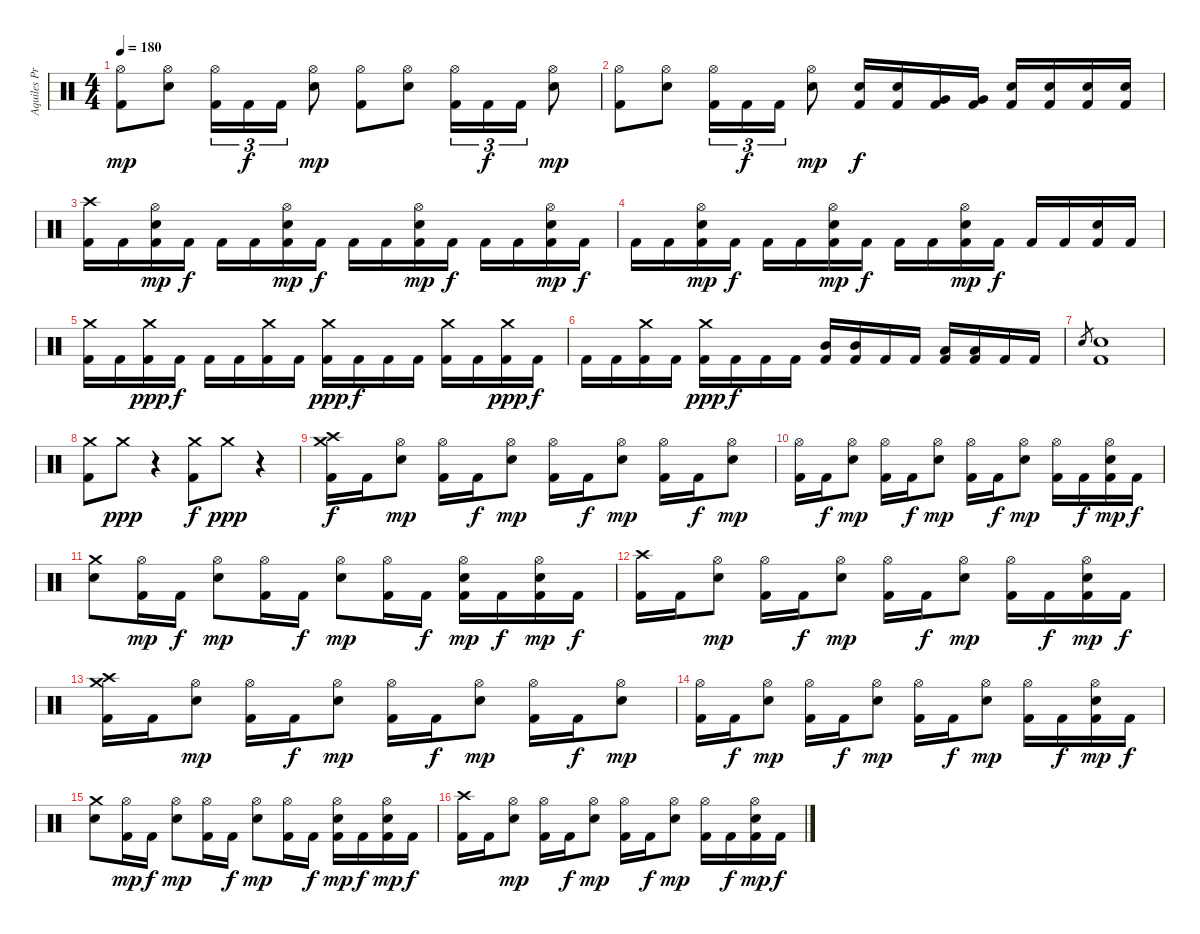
\track ("Aquiles Priester" "Aquiles Pr") {instrument percussion}
\staff {score}
\articulation defaults
\ts (4 4)
\tempo 180
\clef neutral
\ks c
("Hi-Hat (open)" "Kick (hit) 2").8{dy mp} ("Hi-Hat (open)" "Snare (hit) 2").8 ("Hi-Hat (open)" "Kick (hit) 2").16{tu (3 2)} "Kick (hit) 2".16{tu (3 2) dy f} "Kick (hit) 2".16{tu (3 2)} ("Hi-Hat (open)" "Snare (hit) 2").8{dy mp} ("Hi-Hat (open)" "Kick (hit) 2").8 ("Hi-Hat (open)" "Snare (hit) 2").8 ("Hi-Hat (open)" "Kick (hit) 2").16{tu (3 2)} "Kick (hit) 2".16{tu (3 2) dy f} "Kick (hit) 2".16{tu (3 2)} ("Hi-Hat (open)" "Snare (hit) 2").8{dy mp} |
("Hi-Hat (open)" "Kick (hit) 2").8 ("Hi-Hat (open)" "Snare (hit) 2").8 ("Hi-Hat (open)" "Kick (hit) 2").16{tu (3 2)} "Kick (hit) 2".16{tu (3 2) dy f} "Kick (hit) 2".16{tu (3 2)} ("Hi-Hat (open)" "Snare (hit) 2").8{dy mp} ("Snare (hit) 2" "Kick (hit) 2").16{dy f} ("Snare (hit) 2" "Kick (hit) 2").16 ("Very Low Tom (hit)" "Kick (hit) 2").16 ("Very Low Tom (hit)" "Kick (hit) 2").16 ("Snare (hit) 2" "Kick (hit) 2").16 ("Snare (hit) 2" "Kick (hit) 2").16 ("Snare (hit) 2" "Kick (hit) 2").16 ("Snare (hit) 2" "Kick (hit) 2").16 |
("Crash high (hit)" "Kick (hit) 2").16 "Kick (hit) 2".16 ("Hi-Hat (open)" "Snare (hit) 2" "Kick (hit) 2").16{dy mp} "Kick (hit) 2".16{dy f} "Kick (hit) 2".16 "Kick (hit) 2".16 ("Hi-Hat (open)" "Snare (hit) 2" "Kick (hit) 2").16{dy mp} "Kick (hit) 2".16{dy f} "Kick (hit) 2".16 "Kick (hit) 2".16 ("Hi-Hat (open)" "Snare (hit) 2" "Kick (hit) 2").16{dy mp} "Kick (hit) 2".16{dy f} "Kick (hit) 2".16 "Kick (hit) 2".16 ("Hi-Hat (open)" "Snare (hit) 2" "Kick (hit) 2").16{dy mp} "Kick (hit) 2".16{dy f} |
"Kick (hit) 2".16 "Kick (hit) 2".16 ("Hi-Hat (open)" "Snare (hit) 2" "Kick (hit) 2").16{dy mp} "Kick (hit) 2".16{dy f} "Kick (hit) 2".16 "Kick (hit) 2".16 ("Hi-Hat (open)" "Snare (hit) 2" "Kick (hit) 2").16{dy mp} "Kick (hit) 2".16{dy f} "Kick (hit) 2".16 "Kick (hit) 2".16 ("Hi-Hat (open)" "Snare (hit) 2" "Kick (hit) 2").16{dy mp} "Kick (hit) 2".16{dy f} "Kick (hit) 2".16 "Kick (hit) 2".16 ("Snare (hit) 2" "Kick (hit) 2").16 "Kick (hit) 2".16 |
("Crash medium (hit)" "Kick (hit) 2").16 "Kick (hit) 2".16 ("Crash medium (hit)" "Kick (hit) 2").16{dy ppp} "Kick (hit) 2".16{dy f} "Kick (hit) 2".16 "Kick (hit) 2".16 ("Crash medium (hit)" "Kick (hit) 2").16 "Kick (hit) 2".16 ("Crash medium (hit)" "Kick (hit) 2").16{dy ppp} "Kick (hit) 2".16{dy f} "Kick (hit) 2".16 "Kick (hit) 2".16 ("Crash medium (hit)" "Kick (hit) 2").16 "Kick (hit) 2".16 ("Crash medium (hit)" "Kick (hit) 2").16{dy ppp} "Kick (hit) 2".16{dy f} |
"Kick (hit) 2".16 "Kick (hit) 2".16 ("Crash medium (hit)" "Kick (hit) 2").16 "Kick (hit) 2".16 ("Crash medium (hit)" "Kick (hit) 2").16{dy ppp} "Kick (hit) 2".16{dy f} "Kick (hit) 2".16 "Kick (hit) 2".16 ("Mid Tom (hit)" "Kick (hit) 2").16 ("Mid Tom (hit)" "Kick (hit) 2").16 "Kick (hit) 2".16 "Kick (hit) 2".16 ("Low Tom (hit)" "Kick (hit) 2").16 ("Low Tom (hit)" "Kick (hit) 2").16 "Kick (hit) 2".16 "Kick (hit) 2".16 |
"Snare (hit) 2".8{gr} ("Snare (hit) 2" "Kick (hit) 2").1 |
("Crash medium (hit)" "Kick (hit) 2").8 "Crash medium (hit)".8{dy ppp} r.4 ("Crash medium (hit)" "Kick (hit) 2").8{dy f} "Crash medium (hit)".8{dy ppp} r.4 |
("Crash high (hit)" "Crash medium (hit)" "Kick (hit) 2").16{dy f} "Kick (hit) 2".16 ("Hi-Hat (open)" "Snare (hit) 2").8{dy mp} ("Hi-Hat (open)" "Kick (hit) 2").16 "Kick (hit) 2".16{dy f} ("Hi-Hat (open)" "Snare (hit) 2").8{dy mp} ("Hi-Hat (open)" "Kick (hit) 2").16 "Kick (hit) 2".16{dy f} ("Hi-Hat (open)" "Snare (hit) 2").8{dy mp} ("Hi-Hat (open)" "Kick (hit) 2").16 "Kick (hit) 2".16{dy f} ("Hi-Hat (open)" "Snare (hit) 2").8{dy mp} |
("Hi-Hat (open)" "Kick (hit) 2").16 "Kick (hit) 2".16{dy f} ("Hi-Hat (open)" "Snare (hit) 2").8{dy mp} ("Hi-Hat (open)" "Kick (hit) 2").16 "Kick (hit) 2".16{dy f} ("Hi-Hat (open)" "Snare (hit) 2").8{dy mp} ("Hi-Hat (open)" "Kick (hit) 2").16 "Kick (hit) 2".16{dy f} ("Hi-Hat (open)" "Snare (hit) 2").8{dy mp} ("Hi-Hat (open)" "Kick (hit) 2").16 "Kick (hit) 2".16{dy f} ("Hi-Hat (open)" "Snare (hit) 2" "Kick (hit) 2").16{dy mp} "Kick (hit) 2".16{dy f} |
("Crash medium (hit)" "Snare (hit) 2").8 ("Hi-Hat (open)" "Kick (hit) 2").16{dy mp} "Kick (hit) 2".16{dy f} ("Hi-Hat (open)" "Snare (hit) 2").8{dy mp} ("Hi-Hat (open)" "Kick (hit) 2").16 "Kick (hit) 2".16{dy f} ("Hi-Hat (open)" "Snare (hit) 2").8{dy mp} ("Hi-Hat (open)" "Kick (hit) 2").16 "Kick (hit) 2".16{dy f} ("Hi-Hat (open)" "Snare (hit) 2" "Kick (hit) 2").16{dy mp} "Kick (hit) 2".16{dy f} ("Hi-Hat (open)" "Snare (hit) 2" "Kick (hit) 2").16{dy mp} "Kick (hit) 2".16{dy f} |
("Crash high (hit)" "Kick (hit) 2").16 "Kick (hit) 2".16 ("Hi-Hat (open)" "Snare (hit) 2").8{dy mp} ("Hi-Hat (open)" "Kick (hit) 2").16 "Kick (hit) 2".16{dy f} ("Hi-Hat (open)" "Snare (hit) 2").8{dy mp} ("Hi-Hat (open)" "Kick (hit) 2").16 "Kick (hit) 2".16{dy f} ("Hi-Hat (open)" "Snare (hit) 2").8{dy mp} ("Hi-Hat (open)" "Kick (hit) 2").16 "Kick (hit) 2".16{dy f} ("Hi-Hat (open)" "Snare (hit) 2" "Kick (hit) 2").16{dy mp} "Kick (hit) 2".16{dy f} |
("Crash high (hit)" "Crash medium (hit)" "Kick (hit) 2").16 "Kick (hit) 2".16 ("Hi-Hat (open)" "Snare (hit) 2").8{dy mp} ("Hi-Hat (open)" "Kick (hit) 2").16 "Kick (hit) 2".16{dy f} ("Hi-Hat (open)" "Snare (hit) 2").8{dy mp} ("Hi-Hat (open)" "Kick (hit) 2").16 "Kick (hit) 2".16{dy f} ("Hi-Hat (open)" "Snare (hit) 2").8{dy mp} ("Hi-Hat (open)" "Kick (hit) 2").16 "Kick (hit) 2".16{dy f} ("Hi-Hat (open)" "Snare (hit) 2").8{dy mp} |
("Hi-Hat (open)" "Kick (hit) 2").16 "Kick (hit) 2".16{dy f} ("Hi-Hat (open)" "Snare (hit) 2").8{dy mp} ("Hi-Hat (open)" "Kick (hit) 2").16 "Kick (hit) 2".16{dy f} ("Hi-Hat (open)" "Snare (hit) 2").8{dy mp} ("Hi-Hat (open)" "Kick (hit) 2").16 "Kick (hit) 2".16{dy f} ("Hi-Hat (open)" "Snare (hit) 2").8{dy mp} ("Hi-Hat (open)" "Kick (hit) 2").16 "Kick (hit) 2".16{dy f} ("Hi-Hat (open)" "Snare (hit) 2" "Kick (hit) 2").16{dy mp} "Kick (hit) 2".16{dy f} |
("Crash medium (hit)" "Snare (hit) 2").8 ("Hi-Hat (open)" "Kick (hit) 2").16{dy mp} "Kick (hit) 2".16{dy f} ("Hi-Hat (open)" "Snare (hit) 2").8{dy mp} ("Hi-Hat (open)" "Kick (hit) 2").16 "Kick (hit) 2".16{dy f} ("Hi-Hat (open)" "Snare (hit) 2").8{dy mp} ("Hi-Hat (open)" "Kick (hit) 2").16 "Kick (hit) 2".16{dy f} ("Hi-Hat (open)" "Snare (hit) 2" "Kick (hit) 2").16{dy mp} "Kick (hit) 2".16{dy f} ("Hi-Hat (open)" "Snare (hit) 2" "Kick (hit) 2").16{dy mp} "Kick (hit) 2".16{dy f} |
("Crash high (hit)" "Kick (hit) 2").16 "Kick (hit) 2".16 ("Hi-Hat (open)" "Snare (hit) 2").8{dy mp} ("Hi-Hat (open)" "Kick (hit) 2").16 "Kick (hit) 2".16{dy f} ("Hi-Hat (open)" "Snare (hit) 2").8{dy mp} ("Hi-Hat (open)" "Kick (hit) 2").16 "Kick (hit) 2".16{dy f} ("Hi-Hat (open)" "Snare (hit) 2").8{dy mp} ("Hi-Hat (open)" "Kick (hit) 2").16 "Kick (hit) 2".16{dy f} ("Hi-Hat (open)" "Snare (hit) 2" "Kick (hit) 2").16{dy mp} "Kick (hit) 2".16{dy f}
